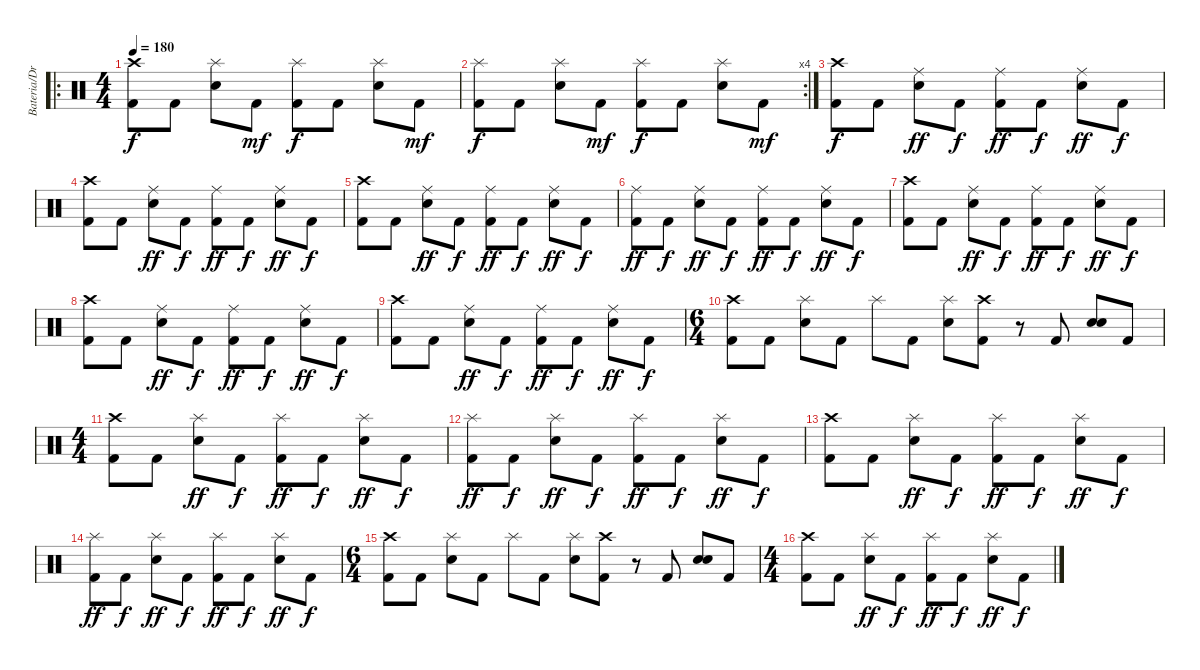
\track ("Bateria/Drums" "Bateria/Dr") {instrument percussion}
\staff {score}
\articulation defaults
\ro
\ts (4 4)
\tempo 180
\clef neutral
\ks c
("Kick (hit) 2" "Crash high (hit)").8{dy f} "Kick (hit) 2".8 ("Electric Snare (hit)" "Splash (hit)").8 "Kick (hit) 2".8{dy mf} ("Kick (hit) 2" "Splash (hit)").8{dy f} "Kick (hit) 2".8 ("Electric Snare (hit)" "Splash (hit)").8 "Kick (hit) 2".8{dy mf} |
\rc 4
("Kick (hit) 2" "Splash (hit)").8{dy f} "Kick (hit) 2".8 ("Electric Snare (hit)" "Splash (hit)").8 "Kick (hit) 2".8{dy mf} ("Kick (hit) 2" "Splash (hit)").8{dy f} "Kick (hit) 2".8 ("Electric Snare (hit)" "Splash (hit)").8 "Kick (hit) 2".8{dy mf} |
("Kick (hit) 2" "Crash high (hit)").8{dy f} "Kick (hit) 2".8 ("Electric Snare (hit)" "Ride (middle)").8{dy ff} "Kick (hit) 2".8{dy f} ("Kick (hit) 2" "Ride (middle)").8{dy ff} "Kick (hit) 2".8{dy f} ("Electric Snare (hit)" "Ride (middle)").8{dy ff} "Kick (hit) 2".8{dy f} |
("Kick (hit) 2" "Crash high (hit)").8 "Kick (hit) 2".8 ("Electric Snare (hit)" "Ride (middle)").8{dy ff} "Kick (hit) 2".8{dy f} ("Kick (hit) 2" "Ride (middle)").8{dy ff} "Kick (hit) 2".8{dy f} ("Electric Snare (hit)" "Ride (middle)").8{dy ff} "Kick (hit) 2".8{dy f} |
("Kick (hit) 2" "Crash high (hit)").8 "Kick (hit) 2".8 ("Electric Snare (hit)" "Ride (middle)").8{dy ff} "Kick (hit) 2".8{dy f} ("Kick (hit) 2" "Ride (middle)").8{dy ff} "Kick (hit) 2".8{dy f} ("Electric Snare (hit)" "Ride (middle)").8{dy ff} "Kick (hit) 2".8{dy f} |
("Kick (hit) 2" "Ride (middle)").8{dy ff} "Kick (hit) 2".8{dy f} ("Electric Snare (hit)" "Ride (middle)").8{dy ff} "Kick (hit) 2".8{dy f} ("Kick (hit) 2" "Ride (middle)").8{dy ff} "Kick (hit) 2".8{dy f} ("Electric Snare (hit)" "Ride (middle)").8{dy ff} "Kick (hit) 2".8{dy f} |
("Kick (hit) 2" "Crash high (hit)").8 "Kick (hit) 2".8 ("Electric Snare (hit)" "Ride (middle)").8{dy ff} "Kick (hit) 2".8{dy f} ("Kick (hit) 2" "Ride (middle)").8{dy ff} "Kick (hit) 2".8{dy f} ("Electric Snare (hit)" "Ride (middle)").8{dy ff} "Kick (hit) 2".8{dy f} |
("Kick (hit) 2" "Crash high (hit)").8 "Kick (hit) 2".8 ("Electric Snare (hit)" "Ride (middle)").8{dy ff} "Kick (hit) 2".8{dy f} ("Kick (hit) 2" "Ride (middle)").8{dy ff} "Kick (hit) 2".8{dy f} ("Electric Snare (hit)" "Ride (middle)").8{dy ff} "Kick (hit) 2".8{dy f} |
("Kick (hit) 2" "Crash high (hit)").8 "Kick (hit) 2".8 ("Electric Snare (hit)" "Ride (middle)").8{dy ff} "Kick (hit) 2".8{dy f} ("Kick (hit) 2" "Ride (middle)").8{dy ff} "Kick (hit) 2".8{dy f} ("Electric Snare (hit)" "Ride (middle)").8{dy ff} "Kick (hit) 2".8{dy f} |
\ts (6 4)
("Kick (hit) 2" "Crash high (hit)").8 "Kick (hit) 2".8 ("Electric Snare (hit)" "Splash (hit)").8 "Kick (hit) 2".8 "Splash (hit)".8 "Kick (hit) 2".8 ("Electric Snare (hit)" "Splash (hit)").8 ("Kick (hit) 2" "Crash high (hit)").8 r.8 "Kick (hit) 2".8 ("Electric Snare (hit)" "Electric Snare (hit)").8{bd 480} "Kick (hit) 2".8 |
\ts (4 4)
("Kick (hit) 2" "Crash high (hit)").8 "Kick (hit) 2".8 ("Electric Snare (hit)" "Splash (hit)").8{dy ff} "Kick (hit) 2".8{dy f} ("Kick (hit) 2" "Splash (hit)").8{dy ff} "Kick (hit) 2".8{dy f} ("Electric Snare (hit)" "Splash (hit)").8{dy ff} "Kick (hit) 2".8{dy f} |
("Kick (hit) 2" "Splash (hit)").8{dy ff} "Kick (hit) 2".8{dy f} ("Electric Snare (hit)" "Splash (hit)").8{dy ff} "Kick (hit) 2".8{dy f} ("Kick (hit) 2" "Splash (hit)").8{dy ff} "Kick (hit) 2".8{dy f} ("Electric Snare (hit)" "Splash (hit)").8{dy ff} "Kick (hit) 2".8{dy f} |
("Kick (hit) 2" "Crash high (hit)").8 "Kick (hit) 2".8 ("Electric Snare (hit)" "Splash (hit)").8{dy ff} "Kick (hit) 2".8{dy f} ("Kick (hit) 2" "Splash (hit)").8{dy ff} "Kick (hit) 2".8{dy f} ("Electric Snare (hit)" "Splash (hit)").8{dy ff} "Kick (hit) 2".8{dy f} |
("Kick (hit) 2" "Splash (hit)").8{dy ff} "Kick (hit) 2".8{dy f} ("Electric Snare (hit)" "Splash (hit)").8{dy ff} "Kick (hit) 2".8{dy f} ("Kick (hit) 2" "Splash (hit)").8{dy ff} "Kick (hit) 2".8{dy f} ("Electric Snare (hit)" "Splash (hit)").8{dy ff} "Kick (hit) 2".8{dy f} |
\ts (6 4)
("Kick (hit) 2" "Crash high (hit)").8 "Kick (hit) 2".8 ("Electric Snare (hit)" "Splash (hit)").8 "Kick (hit) 2".8 "Splash (hit)".8 "Kick (hit) 2".8 ("Electric Snare (hit)" "Splash (hit)").8 ("Kick (hit) 2" "Crash high (hit)").8 r.8 "Kick (hit) 2".8 ("Electric Snare (hit)" "Electric Snare (hit)").8{bd 480} "Kick (hit) 2".8 |
\ts (4 4)
("Kick (hit) 2" "Crash high (hit)").8 "Kick (hit) 2".8 ("Electric Snare (hit)" "Splash (hit)").8{dy ff} "Kick (hit) 2".8{dy f} ("Kick (hit) 2" "Splash (hit)").8{dy ff} "Kick (hit) 2".8{dy f} ("Electric Snare (hit)" "Splash (hit)").8{dy ff} "Kick (hit) 2".8{dy f}
